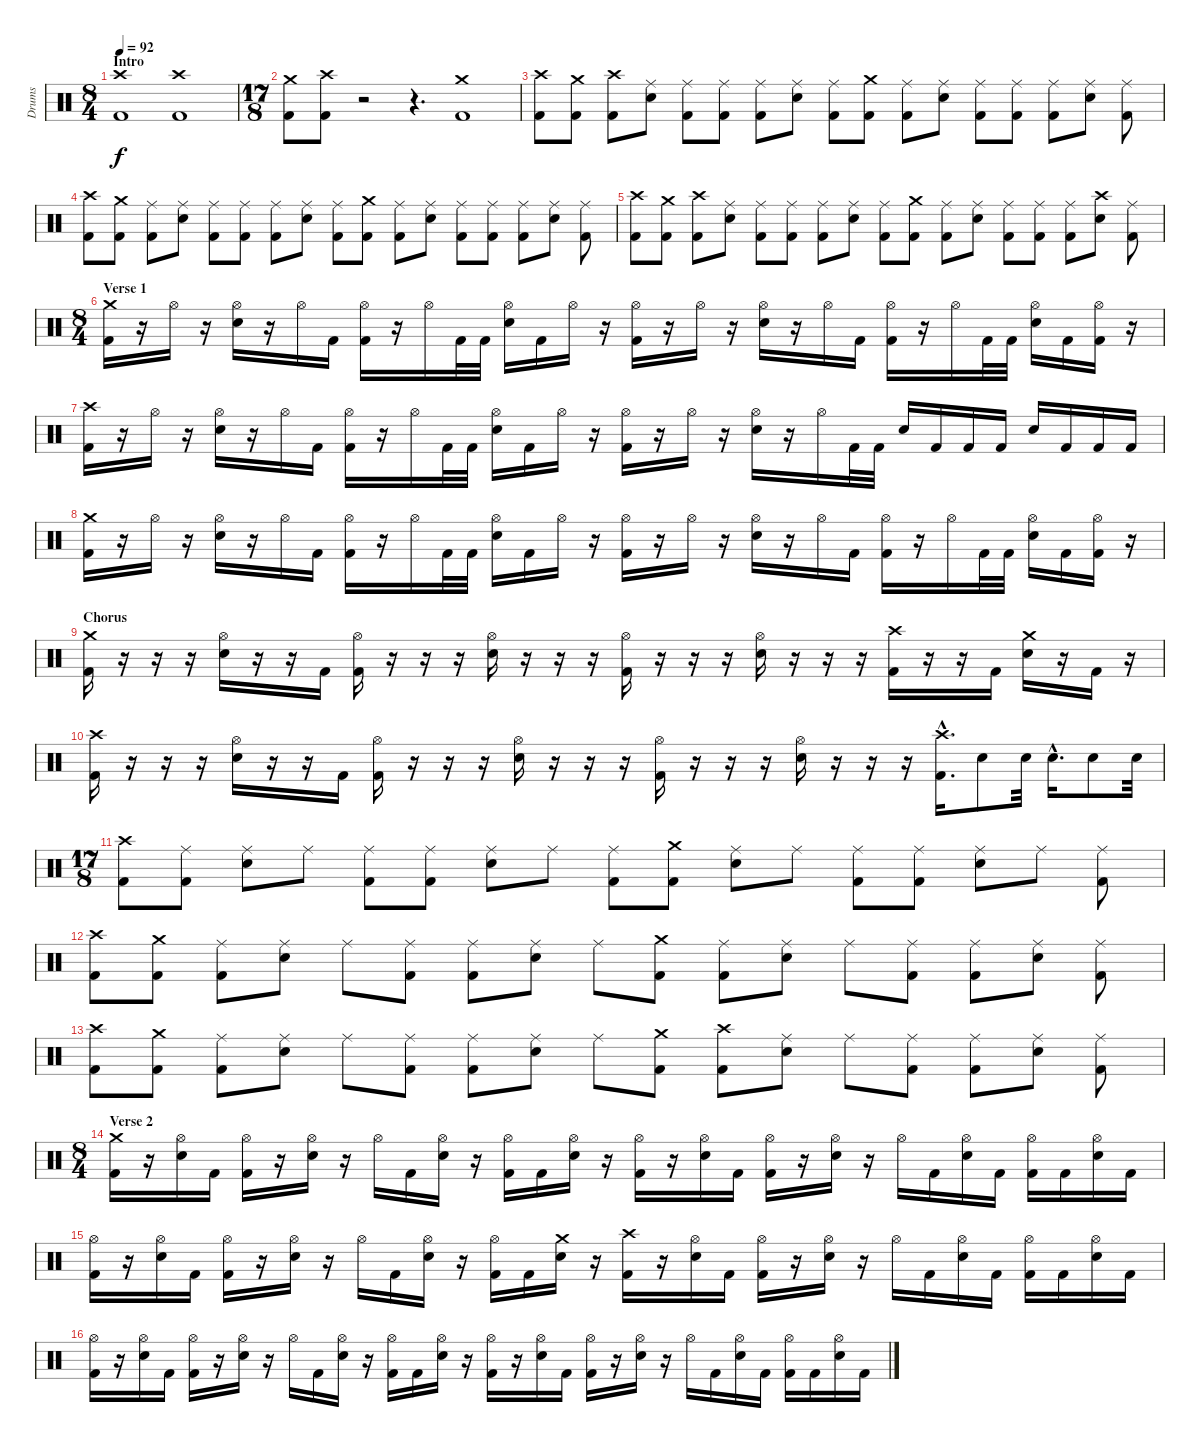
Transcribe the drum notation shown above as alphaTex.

\track ("Drums" "Drums") {instrument percussion}
\staff {score}
\articulation defaults
\ts (8 4)
\section ("" "Intro")
\tempo 92
\clef neutral
\ks c
("Crash high (hit)" "Kick (hit) 2").1{dy f} ("Crash high (hit)" "Kick (hit) 2").1 |
\ts (17 8)
("Crash medium (hit)" "Kick (hit) 2").8 ("Crash high (hit)" "Kick (hit) 2").8 r.2 r.4{d} ("Crash medium (hit)" "Kick (hit) 2").1 |
("Crash high (hit)" "Kick (hit) 2").8 ("Crash medium (hit)" "Kick (hit) 2").8 ("Crash high (hit)" "Kick (hit) 2").8 ("Ride (middle)" "Snare (hit) 2").8 ("Ride (middle)" "Kick (hit) 2").8 ("Ride (middle)" "Kick (hit) 2").8 ("Ride (middle)" "Kick (hit) 2").8 ("Ride (middle)" "Snare (hit) 2").8 ("Ride (middle)" "Kick (hit) 2").8 ("Crash medium (hit)" "Kick (hit) 2").8 ("Ride (middle)" "Kick (hit) 2").8 ("Ride (middle)" "Snare (hit) 2").8 ("Ride (middle)" "Kick (hit) 2").8 ("Ride (middle)" "Kick (hit) 2").8 ("Ride (middle)" "Kick (hit) 2").8 ("Ride (middle)" "Snare (hit) 2").8 ("Ride (middle)" "Kick (hit) 2").8 |
("Crash high (hit)" "Kick (hit) 2").8 ("Crash medium (hit)" "Kick (hit) 2").8 ("Ride (middle)" "Kick (hit) 2").8 ("Ride (middle)" "Snare (hit) 2").8 ("Ride (middle)" "Kick (hit) 2").8 ("Ride (middle)" "Kick (hit) 2").8 ("Ride (middle)" "Kick (hit) 2").8 ("Ride (middle)" "Snare (hit) 2").8 ("Ride (middle)" "Kick (hit) 2").8 ("Crash medium (hit)" "Kick (hit) 2").8 ("Ride (middle)" "Kick (hit) 2").8 ("Ride (middle)" "Snare (hit) 2").8 ("Ride (middle)" "Kick (hit) 2").8 ("Ride (middle)" "Kick (hit) 2").8 ("Ride (middle)" "Kick (hit) 2").8 ("Ride (middle)" "Snare (hit) 2").8 ("Ride (middle)" "Kick (hit) 2").8 |
("Crash high (hit)" "Kick (hit) 2").8 ("Crash medium (hit)" "Kick (hit) 2").8 ("Crash high (hit)" "Kick (hit) 2").8 ("Ride (middle)" "Snare (hit) 2").8 ("Ride (middle)" "Kick (hit) 2").8 ("Ride (middle)" "Kick (hit) 2").8 ("Ride (middle)" "Kick (hit) 2").8 ("Ride (middle)" "Snare (hit) 2").8 ("Ride (middle)" "Kick (hit) 2").8 ("Crash medium (hit)" "Kick (hit) 2").8 ("Ride (middle)" "Kick (hit) 2").8 ("Ride (middle)" "Snare (hit) 2").8 ("Ride (middle)" "Kick (hit) 2").8 ("Ride (middle)" "Kick (hit) 2").8 ("Ride (middle)" "Kick (hit) 2").8 ("Crash high (hit)" "Snare (hit) 2").8 ("Ride (middle)" "Kick (hit) 2").8 |
\ts (8 4)
\section ("" "Verse 1")
("Crash medium (hit)" "Kick (hit) 2").16 r.16 "Hi-Hat (open)".16 r.16 ("Hi-Hat (open)" "Snare (hit) 2").16 r.16 "Hi-Hat (open)".16 "Kick (hit) 2".16 ("Hi-Hat (open)" "Kick (hit) 2").16 r.16 "Hi-Hat (open)".16 "Kick (hit) 2".32 "Kick (hit) 2".32 ("Hi-Hat (open)" "Snare (hit) 2").16 "Kick (hit) 2".16 "Hi-Hat (open)".16 r.16 ("Hi-Hat (open)" "Kick (hit) 2").16 r.16 "Hi-Hat (open)".16 r.16 ("Hi-Hat (open)" "Snare (hit) 2").16 r.16 "Hi-Hat (open)".16 "Kick (hit) 2".16 ("Hi-Hat (open)" "Kick (hit) 2").16 r.16 "Hi-Hat (open)".16 "Kick (hit) 2".32 "Kick (hit) 2".32 ("Hi-Hat (open)" "Snare (hit) 2").16 "Kick (hit) 2".16 ("Hi-Hat (open)" "Kick (hit) 2").16 r.16 |
("Crash high (hit)" "Kick (hit) 2").16 r.16 "Hi-Hat (open)".16 r.16 ("Hi-Hat (open)" "Snare (hit) 2").16 r.16 "Hi-Hat (open)".16 "Kick (hit) 2".16 ("Hi-Hat (open)" "Kick (hit) 2").16 r.16 "Hi-Hat (open)".16 "Kick (hit) 2".32 "Kick (hit) 2".32 ("Hi-Hat (open)" "Snare (hit) 2").16 "Kick (hit) 2".16 "Hi-Hat (open)".16 r.16 ("Hi-Hat (open)" "Kick (hit) 2").16 r.16 "Hi-Hat (open)".16 r.16 ("Hi-Hat (open)" "Snare (hit) 2").16 r.16 "Hi-Hat (open)".16 "Kick (hit) 2".32 "Kick (hit) 2".32 "Snare (hit) 2".16 "Kick (hit) 2".16 "Kick (hit) 2".16 "Kick (hit) 2".16 "Snare (hit) 2".16 "Kick (hit) 2".16 "Kick (hit) 2".16 "Kick (hit) 2".16 |
("Crash medium (hit)" "Kick (hit) 2").16 r.16 "Hi-Hat (open)".16 r.16 ("Hi-Hat (open)" "Snare (hit) 2").16 r.16 "Hi-Hat (open)".16 "Kick (hit) 2".16 ("Hi-Hat (open)" "Kick (hit) 2").16 r.16 "Hi-Hat (open)".16 "Kick (hit) 2".32 "Kick (hit) 2".32 ("Hi-Hat (open)" "Snare (hit) 2").16 "Kick (hit) 2".16 "Hi-Hat (open)".16 r.16 ("Hi-Hat (open)" "Kick (hit) 2").16 r.16 "Hi-Hat (open)".16 r.16 ("Hi-Hat (open)" "Snare (hit) 2").16 r.16 "Hi-Hat (open)".16 "Kick (hit) 2".16 ("Hi-Hat (open)" "Kick (hit) 2").16 r.16 "Hi-Hat (open)".16 "Kick (hit) 2".32 "Kick (hit) 2".32 ("Hi-Hat (open)" "Snare (hit) 2").16 "Kick (hit) 2".16 ("Hi-Hat (open)" "Kick (hit) 2").16 r.16 |
\section ("" "Chorus")
("Crash medium (hit)" "Kick (hit) 2").16 r.16 r.16 r.16 ("Hi-Hat (open)" "Snare (hit) 2").16 r.16 r.16 "Kick (hit) 2".16 ("Hi-Hat (open)" "Kick (hit) 2").16 r.16 r.16 r.16 ("Hi-Hat (open)" "Snare (hit) 2").16 r.16 r.16 r.16 ("Hi-Hat (open)" "Kick (hit) 2").16 r.16 r.16 r.16 ("Hi-Hat (open)" "Snare (hit) 2").16 r.16 r.16 r.16 ("Crash high (hit)" "Kick (hit) 2").16 r.16 r.16 "Kick (hit) 2".16 ("Crash medium (hit)" "Snare (hit) 2").16 r.16 "Kick (hit) 2".16 r.16 |
("Crash high (hit)" "Kick (hit) 2").16 r.16 r.16 r.16 ("Hi-Hat (open)" "Snare (hit) 2").16 r.16 r.16 "Kick (hit) 2".16 ("Hi-Hat (open)" "Kick (hit) 2").16 r.16 r.16 r.16 ("Hi-Hat (open)" "Snare (hit) 2").16 r.16 r.16 r.16 ("Hi-Hat (open)" "Kick (hit) 2").16 r.16 r.16 r.16 ("Hi-Hat (open)" "Snare (hit) 2").16 r.16 r.16 r.16 ("Crash high (hit)"{hac} "Kick (hit) 2"{hac}).16{d} "Snare (hit) 2".8 "Snare (hit) 2".32 "Snare (hit) 2"{hac}.16{d} "Snare (hit) 2".8 "Snare (hit) 2".32 |
\ts (17 8)
("Crash high (hit)" "Kick (hit) 2").8 ("Ride (middle)" "Kick (hit) 2").8 ("Ride (middle)" "Snare (hit) 2").8 "Ride (middle)".8 ("Ride (middle)" "Kick (hit) 2").8 ("Ride (middle)" "Kick (hit) 2").8 ("Ride (middle)" "Snare (hit) 2").8 "Ride (middle)".8 ("Ride (middle)" "Kick (hit) 2").8 ("Crash medium (hit)" "Kick (hit) 2").8 ("Ride (middle)" "Snare (hit) 2").8 "Ride (middle)".8 ("Ride (middle)" "Kick (hit) 2").8 ("Ride (middle)" "Kick (hit) 2").8 ("Ride (middle)" "Snare (hit) 2").8 "Ride (middle)".8 ("Ride (middle)" "Kick (hit) 2").8 |
("Crash high (hit)" "Kick (hit) 2").8 ("Crash medium (hit)" "Kick (hit) 2").8 ("Ride (middle)" "Kick (hit) 2").8 ("Ride (middle)" "Snare (hit) 2").8 "Ride (middle)".8 ("Ride (middle)" "Kick (hit) 2").8 ("Ride (middle)" "Kick (hit) 2").8 ("Ride (middle)" "Snare (hit) 2").8 "Ride (middle)".8 ("Crash medium (hit)" "Kick (hit) 2").8 ("Ride (middle)" "Kick (hit) 2").8 ("Ride (middle)" "Snare (hit) 2").8 "Ride (middle)".8 ("Ride (middle)" "Kick (hit) 2").8 ("Ride (middle)" "Kick (hit) 2").8 ("Ride (middle)" "Snare (hit) 2").8 ("Ride (middle)" "Kick (hit) 2").8 |
("Crash high (hit)" "Kick (hit) 2").8 ("Crash medium (hit)" "Kick (hit) 2").8 ("Ride (middle)" "Kick (hit) 2").8 ("Ride (middle)" "Snare (hit) 2").8 "Ride (middle)".8 ("Ride (middle)" "Kick (hit) 2").8 ("Ride (middle)" "Kick (hit) 2").8 ("Ride (middle)" "Snare (hit) 2").8 "Ride (middle)".8 ("Crash medium (hit)" "Kick (hit) 2").8 ("Crash high (hit)" "Kick (hit) 2").8 ("Ride (middle)" "Snare (hit) 2").8 "Ride (middle)".8 ("Ride (middle)" "Kick (hit) 2").8 ("Ride (middle)" "Kick (hit) 2").8 ("Ride (middle)" "Snare (hit) 2").8 ("Ride (middle)" "Kick (hit) 2").8 |
\ts (8 4)
\section ("" "Verse 2")
("Crash medium (hit)" "Kick (hit) 2").16 r.16 ("Hi-Hat (open)" "Snare (hit) 2").16 "Kick (hit) 2".16 ("Hi-Hat (open)" "Kick (hit) 2").16 r.16 ("Hi-Hat (open)" "Snare (hit) 2").16 r.16 "Hi-Hat (open)".16 "Kick (hit) 2".16 ("Hi-Hat (open)" "Snare (hit) 2").16 r.16 ("Hi-Hat (open)" "Kick (hit) 2").16 "Kick (hit) 2".16 ("Hi-Hat (open)" "Snare (hit) 2").16 r.16 ("Hi-Hat (open)" "Kick (hit) 2").16 r.16 ("Hi-Hat (open)" "Snare (hit) 2").16 "Kick (hit) 2".16 ("Hi-Hat (open)" "Kick (hit) 2").16 r.16 ("Hi-Hat (open)" "Snare (hit) 2").16 r.16 "Hi-Hat (open)".16 "Kick (hit) 2".16 ("Hi-Hat (open)" "Snare (hit) 2").16 "Kick (hit) 2".16 ("Hi-Hat (open)" "Kick (hit) 2").16 "Kick (hit) 2".16 ("Hi-Hat (open)" "Snare (hit) 2").16 "Kick (hit) 2".16 |
("Hi-Hat (open)" "Kick (hit) 2").16 r.16 ("Hi-Hat (open)" "Snare (hit) 2").16 "Kick (hit) 2".16 ("Hi-Hat (open)" "Kick (hit) 2").16 r.16 ("Hi-Hat (open)" "Snare (hit) 2").16 r.16 "Hi-Hat (open)".16 "Kick (hit) 2".16 ("Hi-Hat (open)" "Snare (hit) 2").16 r.16 ("Hi-Hat (open)" "Kick (hit) 2").16 "Kick (hit) 2".16 ("Crash medium (hit)" "Snare (hit) 2").16 r.16 ("Crash high (hit)" "Kick (hit) 2").16 r.16 ("Hi-Hat (open)" "Snare (hit) 2").16 "Kick (hit) 2".16 ("Hi-Hat (open)" "Kick (hit) 2").16 r.16 ("Hi-Hat (open)" "Snare (hit) 2").16 r.16 "Hi-Hat (open)".16 "Kick (hit) 2".16 ("Hi-Hat (open)" "Snare (hit) 2").16 "Kick (hit) 2".16 ("Hi-Hat (open)" "Kick (hit) 2").16 "Kick (hit) 2".16 ("Hi-Hat (open)" "Snare (hit) 2").16 "Kick (hit) 2".16 |
("Hi-Hat (open)" "Kick (hit) 2").16 r.16 ("Hi-Hat (open)" "Snare (hit) 2").16 "Kick (hit) 2".16 ("Hi-Hat (open)" "Kick (hit) 2").16 r.16 ("Hi-Hat (open)" "Snare (hit) 2").16 r.16 "Hi-Hat (open)".16 "Kick (hit) 2".16 ("Hi-Hat (open)" "Snare (hit) 2").16 r.16 ("Hi-Hat (open)" "Kick (hit) 2").16 "Kick (hit) 2".16 ("Hi-Hat (open)" "Snare (hit) 2").16 r.16 ("Hi-Hat (open)" "Kick (hit) 2").16 r.16 ("Hi-Hat (open)" "Snare (hit) 2").16 "Kick (hit) 2".16 ("Hi-Hat (open)" "Kick (hit) 2").16 r.16 ("Hi-Hat (open)" "Snare (hit) 2").16 r.16 "Hi-Hat (open)".16 "Kick (hit) 2".16 ("Hi-Hat (open)" "Snare (hit) 2").16 "Kick (hit) 2".16 ("Hi-Hat (open)" "Kick (hit) 2").16 "Kick (hit) 2".16 ("Hi-Hat (open)" "Snare (hit) 2").16 "Kick (hit) 2".16
